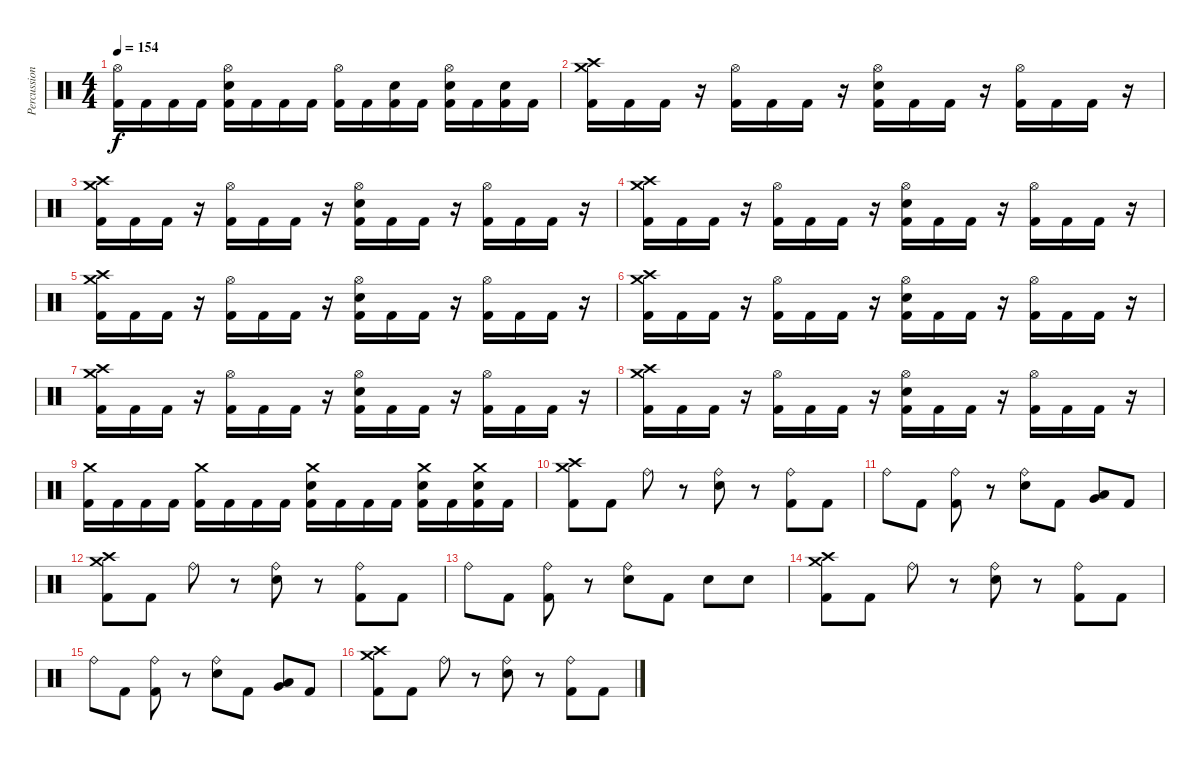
\track ("Percussion" "Percussion") {instrument percussion bank 128}
\staff {score}
\articulation defaults
\ts (4 4)
\tempo 154
\clef neutral
\ks c
("Hi-Hat (open)" "Kick (hit) 2").16{dy f} "Kick (hit) 2".16 "Kick (hit) 2".16 "Kick (hit) 2".16 ("Hi-Hat (open)" "Snare (hit) 2" "Kick (hit) 2").16 "Kick (hit) 2".16 "Kick (hit) 2".16 "Kick (hit) 2".16 ("Hi-Hat (open)" "Kick (hit) 2").16 "Kick (hit) 2".16 ("Snare (hit) 2" "Kick (hit) 2").16 "Kick (hit) 2".16 ("Hi-Hat (open)" "Snare (hit) 2" "Kick (hit) 2").16 "Kick (hit) 2".16 ("Snare (hit) 2" "Kick (hit) 2").16 "Kick (hit) 2".16 |
("Crash high (hit)" "Crash medium (hit)" "Kick (hit) 2").16 "Kick (hit) 2".16 "Kick (hit) 2".16 r.16 ("Hi-Hat (open)" "Kick (hit) 2").16 "Kick (hit) 2".16 "Kick (hit) 2".16 r.16 ("Hi-Hat (open)" "Snare (hit) 2" "Kick (hit) 2").16 "Kick (hit) 2".16 "Kick (hit) 2".16 r.16 ("Hi-Hat (open)" "Kick (hit) 2").16 "Kick (hit) 2".16 "Kick (hit) 2".16 r.16 |
("Crash high (hit)" "Crash medium (hit)" "Kick (hit) 2").16 "Kick (hit) 2".16 "Kick (hit) 2".16 r.16 ("Hi-Hat (open)" "Kick (hit) 2").16 "Kick (hit) 2".16 "Kick (hit) 2".16 r.16 ("Hi-Hat (open)" "Snare (hit) 2" "Kick (hit) 2").16 "Kick (hit) 2".16 "Kick (hit) 2".16 r.16 ("Hi-Hat (open)" "Kick (hit) 2").16 "Kick (hit) 2".16 "Kick (hit) 2".16 r.16 |
("Crash high (hit)" "Crash medium (hit)" "Kick (hit) 2").16 "Kick (hit) 2".16 "Kick (hit) 2".16 r.16 ("Hi-Hat (open)" "Kick (hit) 2").16 "Kick (hit) 2".16 "Kick (hit) 2".16 r.16 ("Hi-Hat (open)" "Snare (hit) 2" "Kick (hit) 2").16 "Kick (hit) 2".16 "Kick (hit) 2".16 r.16 ("Hi-Hat (open)" "Kick (hit) 2").16 "Kick (hit) 2".16 "Kick (hit) 2".16 r.16 |
("Crash high (hit)" "Crash medium (hit)" "Kick (hit) 2").16 "Kick (hit) 2".16 "Kick (hit) 2".16 r.16 ("Hi-Hat (open)" "Kick (hit) 2").16 "Kick (hit) 2".16 "Kick (hit) 2".16 r.16 ("Hi-Hat (open)" "Snare (hit) 2" "Kick (hit) 2").16 "Kick (hit) 2".16 "Kick (hit) 2".16 r.16 ("Hi-Hat (open)" "Kick (hit) 2").16 "Kick (hit) 2".16 "Kick (hit) 2".16 r.16 |
("Crash high (hit)" "Crash medium (hit)" "Kick (hit) 2").16 "Kick (hit) 2".16 "Kick (hit) 2".16 r.16 ("Hi-Hat (open)" "Kick (hit) 2").16 "Kick (hit) 2".16 "Kick (hit) 2".16 r.16 ("Hi-Hat (open)" "Snare (hit) 2" "Kick (hit) 2").16 "Kick (hit) 2".16 "Kick (hit) 2".16 r.16 ("Hi-Hat (open)" "Kick (hit) 2").16 "Kick (hit) 2".16 "Kick (hit) 2".16 r.16 |
("Crash high (hit)" "Crash medium (hit)" "Kick (hit) 2").16 "Kick (hit) 2".16 "Kick (hit) 2".16 r.16 ("Hi-Hat (open)" "Kick (hit) 2").16 "Kick (hit) 2".16 "Kick (hit) 2".16 r.16 ("Hi-Hat (open)" "Snare (hit) 2" "Kick (hit) 2").16 "Kick (hit) 2".16 "Kick (hit) 2".16 r.16 ("Hi-Hat (open)" "Kick (hit) 2").16 "Kick (hit) 2".16 "Kick (hit) 2".16 r.16 |
("Crash high (hit)" "Crash medium (hit)" "Kick (hit) 2").16 "Kick (hit) 2".16 "Kick (hit) 2".16 r.16 ("Hi-Hat (open)" "Kick (hit) 2").16 "Kick (hit) 2".16 "Kick (hit) 2".16 r.16 ("Hi-Hat (open)" "Snare (hit) 2" "Kick (hit) 2").16 "Kick (hit) 2".16 "Kick (hit) 2".16 r.16 ("Hi-Hat (open)" "Kick (hit) 2").16 "Kick (hit) 2".16 "Kick (hit) 2".16 r.16 |
("Crash medium (hit)" "Kick (hit) 2").16 "Kick (hit) 2".16 "Kick (hit) 2".16 "Kick (hit) 2".16 ("Crash medium (hit)" "Kick (hit) 2").16 "Kick (hit) 2".16 "Kick (hit) 2".16 "Kick (hit) 2".16 ("Crash medium (hit)" "Snare (hit) 2" "Kick (hit) 2").16 "Kick (hit) 2".16 "Kick (hit) 2".16 "Kick (hit) 2".16 ("Crash medium (hit)" "Snare (hit) 2" "Kick (hit) 2").16 "Kick (hit) 2".16 ("Crash medium (hit)" "Snare (hit) 2" "Kick (hit) 2").16 "Kick (hit) 2".16 |
("Crash high (hit)" "Crash medium (hit)" "Kick (hit) 2").8 "Kick (hit) 2".8 "Ride (bell)".8 r.8 ("Ride (bell)" "Snare (hit) 2").8 r.8 ("Ride (bell)" "Kick (hit) 2").8 "Kick (hit) 2".8 |
"Ride (bell)".8 "Kick (hit) 2".8 ("Ride (bell)" "Kick (hit) 2").8 r.8 ("Ride (bell)" "Snare (hit) 2").8 "Kick (hit) 2".8 ("Low Tom (hit)" "Very Low Tom (hit)").8 "Kick (hit) 2".8 |
("Crash high (hit)" "Crash medium (hit)" "Kick (hit) 2").8 "Kick (hit) 2".8 "Ride (bell)".8 r.8 ("Ride (bell)" "Snare (hit) 2").8 r.8 ("Ride (bell)" "Kick (hit) 2").8 "Kick (hit) 2".8 |
"Ride (bell)".8 "Kick (hit) 2".8 ("Ride (bell)" "Kick (hit) 2").8 r.8 ("Ride (bell)" "Snare (hit) 2").8 "Kick (hit) 2".8 "Snare (hit) 2".8 "Snare (hit) 2".8 |
("Crash high (hit)" "Crash medium (hit)" "Kick (hit) 2").8 "Kick (hit) 2".8 "Ride (bell)".8 r.8 ("Ride (bell)" "Snare (hit) 2").8 r.8 ("Ride (bell)" "Kick (hit) 2").8 "Kick (hit) 2".8 |
"Ride (bell)".8 "Kick (hit) 2".8 ("Ride (bell)" "Kick (hit) 2").8 r.8 ("Ride (bell)" "Snare (hit) 2").8 "Kick (hit) 2".8 ("Low Tom (hit)" "Very Low Tom (hit)").8 "Kick (hit) 2".8 |
("Crash high (hit)" "Crash medium (hit)" "Kick (hit) 2").8 "Kick (hit) 2".8 "Ride (bell)".8 r.8 ("Ride (bell)" "Snare (hit) 2").8 r.8 ("Ride (bell)" "Kick (hit) 2").8 "Kick (hit) 2".8
